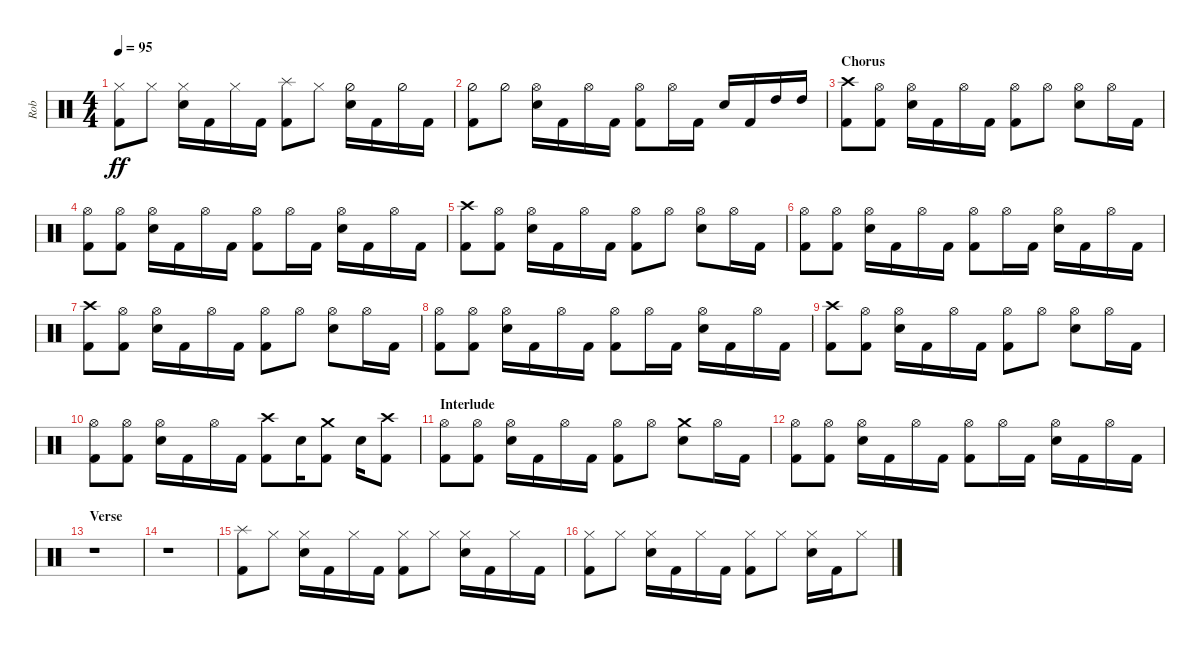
\track ("Rob" "Rob") {instrument percussion}
\staff {score}
\articulation defaults
\ts (4 4)
\tempo 95
\clef neutral
\ks c
("Hi-Hat (closed)" "Kick (hit) 2").8{dy ff} "Hi-Hat (closed)".8 ("Hi-Hat (closed)" "Snare (hit) 2").16 "Kick (hit) 2".16 "Hi-Hat (closed)".16 "Kick (hit) 2".16 ("Splash (hit)" "Kick (hit) 2").8 "Hi-Hat (closed)".8 ("Hi-Hat (half)" "Snare (hit) 2").16 "Kick (hit) 2".16 "Hi-Hat (half)".16 "Kick (hit) 2".16 |
("Hi-Hat (half)" "Kick (hit) 2").8 "Hi-Hat (half)".8 ("Hi-Hat (open)" "Snare (hit) 2").16 "Kick (hit) 2".16 "Hi-Hat (open)".16 "Kick (hit) 2".16 ("Hi-Hat (open)" "Kick (hit) 2").8 "Hi-Hat (open)".16 "Kick (hit) 2".16 "Snare (hit) 2".16 "Kick (hit) 2".16 "High Tom (hit)".16 "High Tom (hit)".16 |
\section ("" "Chorus")
("Crash high (hit)" "Kick (hit) 2").8 ("Hi-Hat (open)" "Kick (hit) 2").8 ("Hi-Hat (open)" "Snare (hit) 2").16 "Kick (hit) 2".16 "Hi-Hat (open)".16 "Kick (hit) 2".16 ("Hi-Hat (open)" "Kick (hit) 2").8 "Hi-Hat (open)".8 ("Hi-Hat (open)" "Snare (hit) 2").8 "Hi-Hat (open)".16 "Kick (hit) 2".16 |
("Hi-Hat (open)" "Kick (hit) 2").8 ("Hi-Hat (open)" "Kick (hit) 2").8 ("Hi-Hat (open)" "Snare (hit) 2").16 "Kick (hit) 2".16 "Hi-Hat (open)".16 "Kick (hit) 2".16 ("Hi-Hat (open)" "Kick (hit) 2").8 "Hi-Hat (open)".16 "Kick (hit) 2".16 ("Hi-Hat (open)" "Snare (hit) 2").16 "Kick (hit) 2".16 "Hi-Hat (open)".16 "Kick (hit) 2".16 |
("Crash high (hit)" "Kick (hit) 2").8 ("Hi-Hat (open)" "Kick (hit) 2").8 ("Hi-Hat (open)" "Snare (hit) 2").16 "Kick (hit) 2".16 "Hi-Hat (open)".16 "Kick (hit) 2".16 ("Hi-Hat (open)" "Kick (hit) 2").8 "Hi-Hat (open)".8 ("Hi-Hat (open)" "Snare (hit) 2").8 "Hi-Hat (open)".16 "Kick (hit) 2".16 |
("Hi-Hat (open)" "Kick (hit) 2").8 ("Hi-Hat (open)" "Kick (hit) 2").8 ("Hi-Hat (open)" "Snare (hit) 2").16 "Kick (hit) 2".16 "Hi-Hat (open)".16 "Kick (hit) 2".16 ("Hi-Hat (open)" "Kick (hit) 2").8 "Hi-Hat (open)".16 "Kick (hit) 2".16 ("Hi-Hat (open)" "Snare (hit) 2").16 "Kick (hit) 2".16 "Hi-Hat (open)".16 "Kick (hit) 2".16 |
("Crash high (hit)" "Kick (hit) 2").8 ("Hi-Hat (open)" "Kick (hit) 2").8 ("Hi-Hat (open)" "Snare (hit) 2").16 "Kick (hit) 2".16 "Hi-Hat (open)".16 "Kick (hit) 2".16 ("Hi-Hat (open)" "Kick (hit) 2").8 "Hi-Hat (open)".8 ("Hi-Hat (open)" "Snare (hit) 2").8 "Hi-Hat (open)".16 "Kick (hit) 2".16 |
("Hi-Hat (open)" "Kick (hit) 2").8 ("Hi-Hat (open)" "Kick (hit) 2").8 ("Hi-Hat (open)" "Snare (hit) 2").16 "Kick (hit) 2".16 "Hi-Hat (open)".16 "Kick (hit) 2".16 ("Hi-Hat (open)" "Kick (hit) 2").8 "Hi-Hat (open)".16 "Kick (hit) 2".16 ("Hi-Hat (open)" "Snare (hit) 2").16 "Kick (hit) 2".16 "Hi-Hat (open)".16 "Kick (hit) 2".16 |
("Crash high (hit)" "Kick (hit) 2").8 ("Hi-Hat (open)" "Kick (hit) 2").8 ("Hi-Hat (open)" "Snare (hit) 2").16 "Kick (hit) 2".16 "Hi-Hat (open)".16 "Kick (hit) 2".16 ("Hi-Hat (open)" "Kick (hit) 2").8 "Hi-Hat (open)".8 ("Hi-Hat (open)" "Snare (hit) 2").8 "Hi-Hat (open)".16 "Kick (hit) 2".16 |
("Hi-Hat (open)" "Kick (hit) 2").8 ("Hi-Hat (open)" "Kick (hit) 2").8 ("Hi-Hat (open)" "Snare (hit) 2").16 "Kick (hit) 2".16 "Hi-Hat (open)".16 "Kick (hit) 2".16 ("Crash high (hit)" "Kick (hit) 2").8 "Snare (hit) 2".16 ("Crash medium (hit)" "Kick (hit) 2").8 "Snare (hit) 2".16 ("Crash high (hit)" "Kick (hit) 2").8 |
\section ("" "Interlude")
("Hi-Hat (open)" "Kick (hit) 2").8 ("Hi-Hat (open)" "Kick (hit) 2").8 ("Hi-Hat (open)" "Snare (hit) 2").16 "Kick (hit) 2".16 "Hi-Hat (open)".16 "Kick (hit) 2".16 ("Hi-Hat (open)" "Kick (hit) 2").8 "Hi-Hat (open)".8 ("Crash medium (hit)" "Snare (hit) 2").8 "Hi-Hat (open)".16 "Kick (hit) 2".16 |
("Hi-Hat (open)" "Kick (hit) 2").8 ("Hi-Hat (open)" "Kick (hit) 2").8 ("Hi-Hat (open)" "Snare (hit) 2").16 "Kick (hit) 2".16 "Hi-Hat (open)".16 "Kick (hit) 2".16 ("Hi-Hat (open)" "Kick (hit) 2").8 "Hi-Hat (open)".16 "Kick (hit) 2".16 ("Hi-Hat (open)" "Snare (hit) 2").16 "Kick (hit) 2".16 "Hi-Hat (open)".16 "Kick (hit) 2".16 |
\section ("" "Verse")
r.1 |
r.1 |
("Splash (hit)" "Kick (hit) 2").8 "Hi-Hat (closed)".8 ("Hi-Hat (closed)" "Snare (hit) 2").16 "Kick (hit) 2".16 "Hi-Hat (closed)".16 "Kick (hit) 2".16 ("Hi-Hat (closed)" "Kick (hit) 2").8 "Hi-Hat (closed)".8 ("Hi-Hat (closed)" "Snare (hit) 2").16 "Kick (hit) 2".16 "Hi-Hat (closed)".16 "Kick (hit) 2".16 |
("Hi-Hat (closed)" "Kick (hit) 2").8 "Hi-Hat (closed)".8 ("Hi-Hat (closed)" "Snare (hit) 2").16 "Kick (hit) 2".16 "Hi-Hat (closed)".16 "Kick (hit) 2".16 ("Hi-Hat (closed)" "Kick (hit) 2").8 "Hi-Hat (closed)".8 ("Hi-Hat (closed)" "Snare (hit) 2").16 "Kick (hit) 2".16 "Hi-Hat (closed)".8
